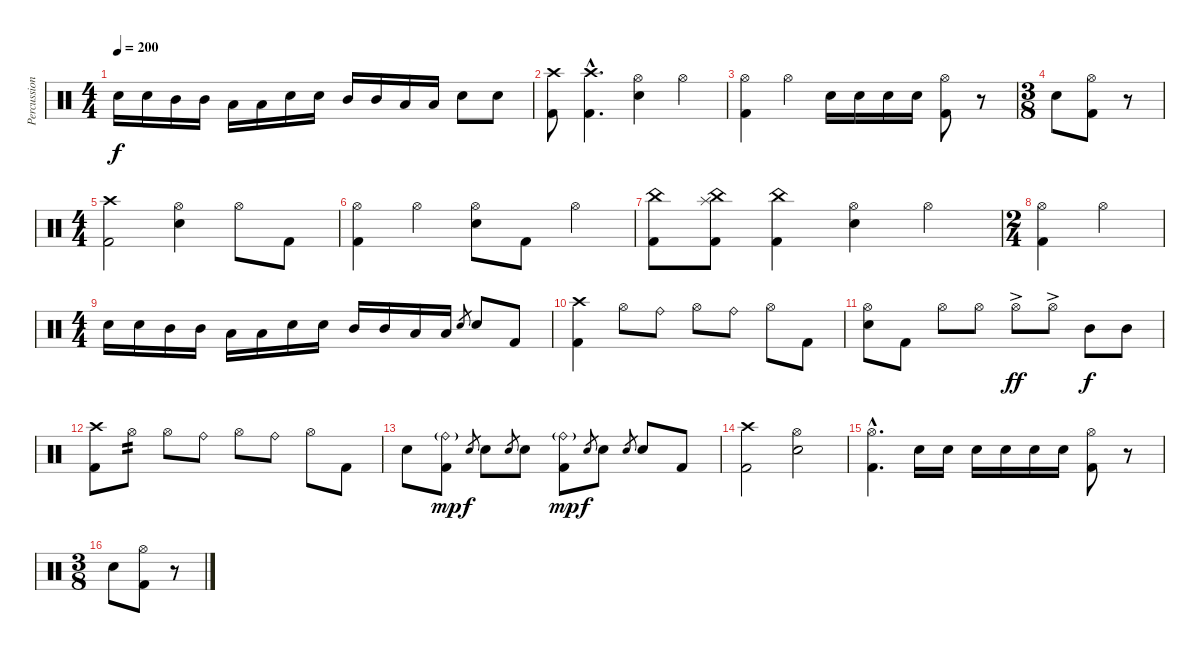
\track ("Percussion" "Percussion") {instrument percussion}
\staff {score}
\articulation defaults
\ts (4 4)
\tempo 200
\clef neutral
\ks c "Electric Snare (hit)".16{dy f} "Electric Snare (hit)".16 "Mid Tom (hit)".16 "Mid Tom (hit)".16 "Low Tom (hit)".16 "Low Tom (hit)".16 "Electric Snare (hit)".16 "Electric Snare (hit)".16 "Mid Tom (hit)".16 "Mid Tom (hit)".16 "Low Tom (hit)".16 "Low Tom (hit)".16 "Electric Snare (hit)".8 "Electric Snare (hit)".8
|
("Crash high (hit)" "Kick (hit) 2").8 ("Crash high (hit)"{hac} "Kick (hit) 2"{hac}).4{d} ("Hi-Hat (open)" "Electric Snare (hit)").4 "Hi-Hat (open)".4 |
("Hi-Hat (open)" "Kick (hit) 2").4 "Hi-Hat (open)".4 "Electric Snare (hit)".16 "Electric Snare (hit)".16 "Electric Snare (hit)".16 "Electric Snare (hit)".16 ("Hi-Hat (open)" "Kick (hit) 2").8 r.8{volume 0} |
\ts (3 8)
"Electric Snare (hit)".8{volume 13} ("Hi-Hat (open)" "Kick (hit) 2").8 r.8{volume 0} |
\ts (4 4)
("Crash high (hit)" "Kick (hit) 2").2{volume 13} ("Hi-Hat (open)" "Electric Snare (hit)").4 "Hi-Hat (open)".8 "Kick (hit) 2".8 |
("Kick (hit) 2" "Hi-Hat (open)").4 "Hi-Hat (open)".4 ("Hi-Hat (open)" "Electric Snare (hit)").8 "Kick (hit) 2".8 "Hi-Hat (open)".4 |
("Kick (hit) 2" "China (hit)").8 ("Kick (hit) 2" "China (hit)" "Splash (hit)").8 ("Kick (hit) 2" "China (hit)").4 ("Hi-Hat (open)" "Electric Snare (hit)").4 "Hi-Hat (open)".4 |
\ts (2 4)
("Hi-Hat (open)" "Kick (hit) 2").4 "Hi-Hat (open)".4 |
\ts (4 4)
"Electric Snare (hit)".16 "Electric Snare (hit)".16 "Mid Tom (hit)".16 "Mid Tom (hit)".16 "Low Tom (hit)".16 "Low Tom (hit)".16 "Electric Snare (hit)".16 "Electric Snare (hit)".16 "Mid Tom (hit)".16 "Mid Tom (hit)".16 "Low Tom (hit)".16 "Low Tom (hit)".16 "Electric Snare (hit)".8{gr} "Electric Snare (hit)".8 "Kick (hit) 2".8 |
("Crash high (hit)" "Kick (hit) 2").4 "Hi-Hat (open)".8 "Ride (bell)".8 "Hi-Hat (open)".8 "Ride (bell)".8 "Hi-Hat (open)".8 "Kick (hit) 2".8 |
("Hi-Hat (open)" "Electric Snare (hit)").8 "Kick (hit) 2".8 "Hi-Hat (open)".8 "Hi-Hat (open)".8 "Hi-Hat (open)"{ac}.8{dy ff} "Hi-Hat (open)"{ac}.8 "Mid Tom (hit)".8{dy f} "Mid Tom (hit)".8 |
("Crash high (hit)" "Kick (hit) 2").8 "Hi-Hat (open)".8{tp 2} "Hi-Hat (open)".8 "Ride (bell)".8 "Hi-Hat (open)".8 "Ride (bell)".8 "Hi-Hat (open)".8 "Kick (hit) 2".8 |
"Electric Snare (hit)".8 ("Kick (hit) 2" "Ride (bell)"{g}).8{dy mp} "Electric Snare (hit)".8{gr dy f} "Electric Snare (hit)".8 "Electric Snare (hit)".8{gr} "Electric Snare (hit)".8 ("Kick (hit) 2" "Ride (bell)"{g}).8{dy mp} "Electric Snare (hit)".8{gr dy f} "Electric Snare (hit)".8 "Electric Snare (hit)".8{gr} "Electric Snare (hit)".8 "Kick (hit) 2".8 |
("Crash high (hit)" "Kick (hit) 2").2 ("Hi-Hat (open)" "Electric Snare (hit)").2 |
("Hi-Hat (open)"{hac} "Kick (hit) 2"{hac}).4{d} "Electric Snare (hit)".16 "Electric Snare (hit)".16 "Electric Snare (hit)".16 "Electric Snare (hit)".16 "Electric Snare (hit)".16 "Electric Snare (hit)".16 ("Hi-Hat (open)" "Kick (hit) 2").8 r.8{volume 0} |
\ts (3 8)
"Electric Snare (hit)".8{volume 13} ("Hi-Hat (open)" "Kick (hit) 2").8 r.8{volume 0}
